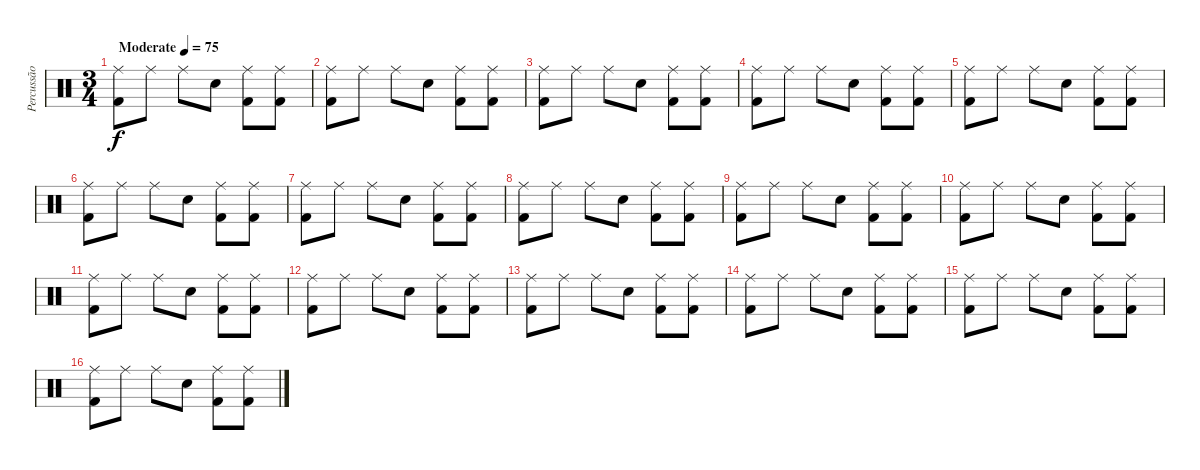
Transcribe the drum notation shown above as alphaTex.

\track ("Percussão" "Percussão") {instrument percussion}
\staff {score}
\articulation defaults
\ts (3 4)
\tempo (75 "Moderate")
\clef neutral
\ks c
("Ride (middle)" "Kick (hit) 2").8{dy f} "Ride (middle)".8 "Ride (middle)".8 "Electric Snare (hit)".8 ("Ride (middle)" "Kick (hit) 2").8 ("Ride (middle)" "Kick (hit) 2").8 |
("Ride (middle)" "Kick (hit) 2").8 "Ride (middle)".8 "Ride (middle)".8 "Electric Snare (hit)".8 ("Ride (middle)" "Kick (hit) 2").8 ("Ride (middle)" "Kick (hit) 2").8 |
("Ride (middle)" "Kick (hit) 2").8 "Ride (middle)".8 "Ride (middle)".8 "Electric Snare (hit)".8 ("Ride (middle)" "Kick (hit) 2").8 ("Ride (middle)" "Kick (hit) 2").8 |
("Ride (middle)" "Kick (hit) 2").8 "Ride (middle)".8 "Ride (middle)".8 "Electric Snare (hit)".8 ("Ride (middle)" "Kick (hit) 2").8 ("Ride (middle)" "Kick (hit) 2").8 |
("Ride (middle)" "Kick (hit) 2").8 "Ride (middle)".8 "Ride (middle)".8 "Electric Snare (hit)".8 ("Ride (middle)" "Kick (hit) 2").8 ("Ride (middle)" "Kick (hit) 2").8 |
("Ride (middle)" "Kick (hit) 2").8 "Ride (middle)".8 "Ride (middle)".8 "Electric Snare (hit)".8 ("Ride (middle)" "Kick (hit) 2").8 ("Ride (middle)" "Kick (hit) 2").8 |
("Ride (middle)" "Kick (hit) 2").8 "Ride (middle)".8 "Ride (middle)".8 "Electric Snare (hit)".8 ("Ride (middle)" "Kick (hit) 2").8 ("Ride (middle)" "Kick (hit) 2").8 |
("Ride (middle)" "Kick (hit) 2").8 "Ride (middle)".8 "Ride (middle)".8 "Electric Snare (hit)".8 ("Ride (middle)" "Kick (hit) 2").8 ("Ride (middle)" "Kick (hit) 2").8 |
("Ride (middle)" "Kick (hit) 2").8 "Ride (middle)".8 "Ride (middle)".8 "Electric Snare (hit)".8 ("Ride (middle)" "Kick (hit) 2").8 ("Ride (middle)" "Kick (hit) 2").8 |
("Ride (middle)" "Kick (hit) 2").8 "Ride (middle)".8 "Ride (middle)".8 "Electric Snare (hit)".8 ("Ride (middle)" "Kick (hit) 2").8 ("Ride (middle)" "Kick (hit) 2").8 |
("Ride (middle)" "Kick (hit) 2").8 "Ride (middle)".8 "Ride (middle)".8 "Electric Snare (hit)".8 ("Ride (middle)" "Kick (hit) 2").8 ("Ride (middle)" "Kick (hit) 2").8 |
("Ride (middle)" "Kick (hit) 2").8 "Ride (middle)".8 "Ride (middle)".8 "Electric Snare (hit)".8 ("Ride (middle)" "Kick (hit) 2").8 ("Ride (middle)" "Kick (hit) 2").8 |
("Ride (middle)" "Kick (hit) 2").8 "Ride (middle)".8 "Ride (middle)".8 "Electric Snare (hit)".8 ("Ride (middle)" "Kick (hit) 2").8 ("Ride (middle)" "Kick (hit) 2").8 |
("Ride (middle)" "Kick (hit) 2").8 "Ride (middle)".8 "Ride (middle)".8 "Electric Snare (hit)".8 ("Ride (middle)" "Kick (hit) 2").8 ("Ride (middle)" "Kick (hit) 2").8 |
("Ride (middle)" "Kick (hit) 2").8 "Ride (middle)".8 "Ride (middle)".8 "Electric Snare (hit)".8 ("Ride (middle)" "Kick (hit) 2").8 ("Ride (middle)" "Kick (hit) 2").8 |
("Ride (middle)" "Kick (hit) 2").8 "Ride (middle)".8 "Ride (middle)".8 "Electric Snare (hit)".8 ("Ride (middle)" "Kick (hit) 2").8 ("Ride (middle)" "Kick (hit) 2").8
